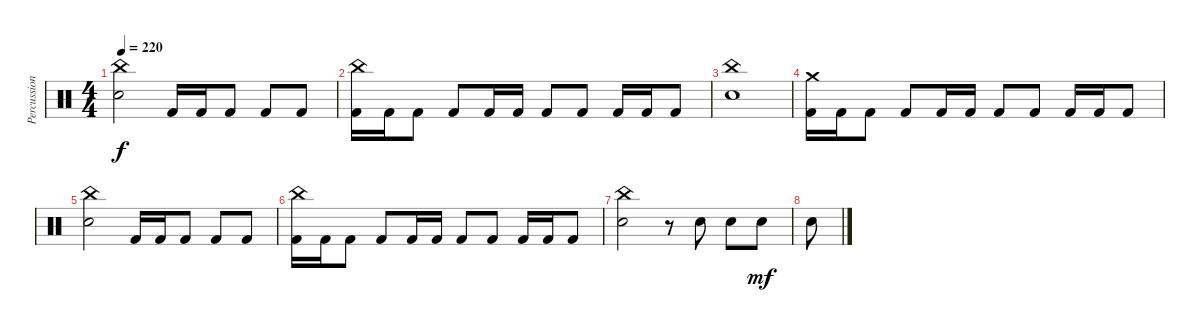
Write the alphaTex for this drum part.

\track ("Percussions" "Percussion") {instrument percussion}
\staff {score}
\articulation defaults
\ts (4 4)
\tempo 220
\clef neutral
\ks c
("China (hit)" "Electric Snare (hit)").2{dy f} "Kick (hit) 2".16 "Kick (hit) 2".16 "Kick (hit) 2".8 "Kick (hit) 2".8 "Kick (hit) 2".8 |
("China (hit)" "Kick (hit) 2").16 "Kick (hit) 2".16 "Kick (hit) 2".8 "Kick (hit) 2".8 "Kick (hit) 2".16 "Kick (hit) 2".16 "Kick (hit) 2".8 "Kick (hit) 2".8 "Kick (hit) 2".16 "Kick (hit) 2".16 "Kick (hit) 2".8 |
("China (hit)" "Electric Snare (hit)").1 |
("Crash medium (hit)" "Kick (hit) 2").16 "Kick (hit) 2".16 "Kick (hit) 2".8 "Kick (hit) 2".8 "Kick (hit) 2".16 "Kick (hit) 2".16 "Kick (hit) 2".8 "Kick (hit) 2".8 "Kick (hit) 2".16 "Kick (hit) 2".16 "Kick (hit) 2".8 |
("China (hit)" "Electric Snare (hit)").2 "Kick (hit) 2".16 "Kick (hit) 2".16 "Kick (hit) 2".8 "Kick (hit) 2".8 "Kick (hit) 2".8 |
("China (hit)" "Kick (hit) 2").16 "Kick (hit) 2".16 "Kick (hit) 2".8 "Kick (hit) 2".8 "Kick (hit) 2".16 "Kick (hit) 2".16 "Kick (hit) 2".8 "Kick (hit) 2".8 "Kick (hit) 2".16 "Kick (hit) 2".16 "Kick (hit) 2".8 |
("China (hit)" "Electric Snare (hit)").2 r.8 "Electric Snare (hit)".8 "Electric Snare (hit)".8 "Electric Snare (hit)".8{dy mf} |
"Electric Snare (hit)".8
